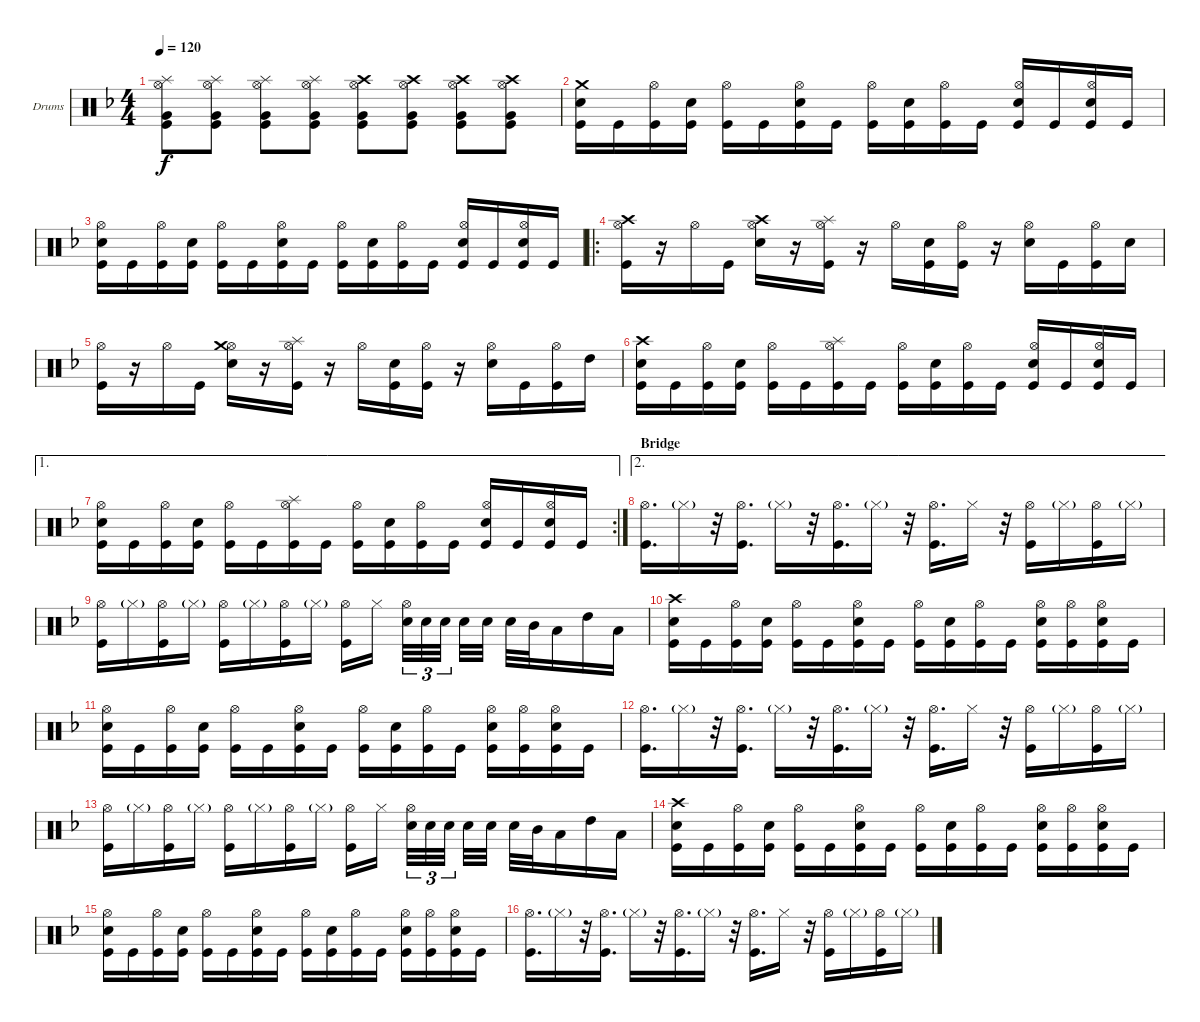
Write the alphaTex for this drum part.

\defaultSystemsLayout 4
\bracketExtendMode groupsimilarinstruments
\firstSystemTrackNameOrientation horizontal
\otherSystemsTrackNameOrientation horizontal
\track ("Drumkit" "Drums") {instrument percussion}
\staff {score}
\articulation defaults
\ts (4 4)
\tempo 120
\clef neutral
\scale
0.333333
\ks f
("Splash (hit)" "Very Low Tom (hit)" "Kick (hit)" "Hi-Hat (open)").8{dy f} ("Splash (hit)" "Very Low Tom (hit)" "Kick (hit)" "Hi-Hat (open)").8 ("Splash (hit)" "Very Low Tom (hit)" "Kick (hit)" "Hi-Hat (open)").8 ("Splash (hit)" "Very Low Tom (hit)" "Kick (hit)" "Hi-Hat (open)").8 ("Very Low Tom (hit)" "Kick (hit)" "Hi-Hat (open)" "Crash high (hit)").8 ("Very Low Tom (hit)" "Kick (hit)" "Hi-Hat (open)" "Crash high (hit)").8 ("Very Low Tom (hit)" "Kick (hit)" "Hi-Hat (open)" "Crash high (hit)").8 ("Very Low Tom (hit)" "Kick (hit)" "Hi-Hat (open)" "Crash high (hit)").8 |
\scale
0.311111 ("Crash medium (hit)" "Snare (hit) 2" "Kick (hit)").16 "Kick (hit)".16 ("Kick (hit)" "Hi-Hat (open)").16 ("Kick (hit)" "Snare (hit) 2").16 ("Kick (hit)" "Hi-Hat (open)").16 "Kick (hit)".16 ("Kick (hit)" "Snare (hit) 2" "Hi-Hat (open)").16 "Kick (hit)".16 ("Kick (hit)" "Hi-Hat (open)").16 ("Kick (hit)" "Snare (hit) 2").16 ("Kick (hit)" "Hi-Hat (open)").16 "Kick (hit)".16 ("Kick (hit)" "Snare (hit) 2" "Hi-Hat (open)").16 "Kick (hit)".16 ("Kick (hit)" "Snare (hit) 2" "Hi-Hat (open)").16 "Kick (hit)".16 |
\scale
0.311111 ("Snare (hit) 2" "Kick (hit)" "Hi-Hat (open)").16 "Kick (hit)".16 ("Kick (hit)" "Hi-Hat (open)").16 ("Kick (hit)" "Snare (hit) 2").16 ("Kick (hit)" "Hi-Hat (open)").16 "Kick (hit)".16 ("Kick (hit)" "Snare (hit) 2" "Hi-Hat (open)").16 "Kick (hit)".16 ("Kick (hit)" "Hi-Hat (open)").16 ("Kick (hit)" "Snare (hit) 2").16 ("Kick (hit)" "Hi-Hat (open)").16 "Kick (hit)".16 ("Kick (hit)" "Snare (hit) 2" "Hi-Hat (open)").16 "Kick (hit)".16 ("Kick (hit)" "Snare (hit) 2" "Hi-Hat (open)").16 "Kick (hit)".16 |
\ro
\scale
0.377778 ("Crash high (hit)" "Kick (hit)" "Hi-Hat (open)").16 r.16 "Hi-Hat (open)".16 "Kick (hit)".16 ("Snare (hit) 2" "Hi-Hat (open)" "Crash high (hit)").16 r.16 ("Splash (hit)" "Hi-Hat (open)" "Kick (hit)").16 r.16 "Hi-Hat (open)".16 ("Kick (hit)" "Snare (hit) 2").16 ("Kick (hit)" "Hi-Hat (open)").16 r.16 ("Snare (hit) 2" "Hi-Hat (open)").16 "Kick (hit)".16 ("Kick (hit)" "Hi-Hat (open)").16 "Snare (hit) 2".16 |
\scale
0.321839 ("Kick (hit)" "Hi-Hat (open)").16 r.16 "Hi-Hat (open)".16 "Kick (hit)".16 ("Hi-Hat (open)" "Crash medium (hit)" "Snare (hit) 2").16 r.16 ("Kick (hit)" "Splash (hit)" "Hi-Hat (open)").16 r.16 "Hi-Hat (open)".16 ("Kick (hit)" "Snare (hit) 2").16 ("Kick (hit)" "Hi-Hat (open)").16 r.16 ("Snare (hit) 2" "Hi-Hat (open)").16 "Kick (hit)".16 ("Kick (hit)" "Hi-Hat (open)").16 "High Tom (hit)".16 |
\scale
0.321839 ("Crash high (hit)" "Kick (hit)" "Snare (hit) 2").16 "Kick (hit)".16 ("Hi-Hat (open)" "Kick (hit)").16 ("Kick (hit)" "Snare (hit) 2").16 ("Hi-Hat (open)" "Kick (hit)").16 "Kick (hit)".16 ("Splash (hit)" "Hi-Hat (open)" "Kick (hit)").16 "Kick (hit)".16 ("Hi-Hat (open)" "Kick (hit)").16 ("Kick (hit)" "Snare (hit) 2").16 ("Kick (hit)" "Hi-Hat (open)").16 "Kick (hit)".16 ("Snare (hit) 2" "Hi-Hat (open)" "Kick (hit)").16 "Kick (hit)".16 ("Kick (hit)" "Hi-Hat (open)" "Snare (hit) 2").16 "Kick (hit)".16 |
\ae 1
\rc 2
\scale
0.356322 ("Kick (hit)" "Snare (hit) 2" "Hi-Hat (open)").16 "Kick (hit)".16 ("Hi-Hat (open)" "Kick (hit)").16 ("Kick (hit)" "Snare (hit) 2").16 ("Hi-Hat (open)" "Kick (hit)").16 "Kick (hit)".16 ("Splash (hit)" "Hi-Hat (open)" "Kick (hit)").16 "Kick (hit)".16 ("Hi-Hat (open)" "Kick (hit)").16 ("Kick (hit)" "Snare (hit) 2").16 ("Kick (hit)" "Hi-Hat (open)").16 "Kick (hit)".16 ("Snare (hit) 2" "Hi-Hat (open)" "Kick (hit)").16 "Kick (hit)".16 ("Kick (hit)" "Hi-Hat (open)" "Snare (hit) 2").16 "Kick (hit)".16 |
\ae 2
\section ("" "Bridge")
\scale
0.333333 ("Hi-Hat (open)" "Kick (hit)").16{d} "Hi-Hat (closed)"{g}.16 r.32 ("Kick (hit)" "Hi-Hat (open)").16{d} "Hi-Hat (closed)"{g}.16 r.32 ("Kick (hit)" "Hi-Hat (open)").16{d} "Hi-Hat (closed)"{g}.16 r.32 ("Kick (hit)" "Hi-Hat (open)").16{d} "Hi-Hat (closed)".16 r.32 ("Kick (hit)" "Hi-Hat (open)").16 "Hi-Hat (closed)"{g}.16 ("Kick (hit)" "Hi-Hat (open)").16 "Hi-Hat (closed)"{g}.16 |
\scale
0.333333 ("Hi-Hat (open)" "Kick (hit)").16 "Hi-Hat (closed)"{g}.16 ("Kick (hit)" "Hi-Hat (open)").16 "Hi-Hat (closed)"{g}.16 ("Kick (hit)" "Hi-Hat (open)").16 "Hi-Hat (closed)"{g}.16 ("Kick (hit)" "Hi-Hat (open)").16 "Hi-Hat (closed)"{g}.16 ("Kick (hit)" "Hi-Hat (open)").16 "Hi-Hat (closed)".16 ("Hi-Hat (open)" "Snare (hit) 2").32{tu (3 2)} "Snare (hit) 2".32{tu (3 2)} "Snare (hit) 2".32{tu (3 2)} "Snare (hit) 2".32 "Snare (hit) 2".32 "Snare (hit) 2".32 "Mid Tom (hit)".32 "Low Tom (hit)".16 "High Tom (hit)".16 "Low Tom (hit)".16 |
\scale
0.333333 ("Crash high (hit)" "Kick (hit)" "Snare (hit) 2").16 "Kick (hit)".16 ("Hi-Hat (open)" "Kick (hit)").16 ("Kick (hit)" "Snare (hit) 2").16 ("Hi-Hat (open)" "Kick (hit)").16 "Kick (hit)".16 ("Hi-Hat (open)" "Kick (hit)" "Snare (hit) 2").16 "Kick (hit)".16 ("Kick (hit)" "Hi-Hat (open)").16 ("Kick (hit)" "Snare (hit) 2").16 ("Kick (hit)" "Hi-Hat (open)").16 "Kick (hit)".16 ("Kick (hit)" "Snare (hit) 2" "Hi-Hat (open)").16 ("Hi-Hat (open)" "Kick (hit)").16 ("Kick (hit)" "Snare (hit) 2" "Hi-Hat (open)").16 "Kick (hit)".16 |
\scale
0.333333 ("Kick (hit)" "Snare (hit) 2" "Hi-Hat (open)").16 "Kick (hit)".16 ("Hi-Hat (open)" "Kick (hit)").16 ("Kick (hit)" "Snare (hit) 2").16 ("Hi-Hat (open)" "Kick (hit)").16 "Kick (hit)".16 ("Hi-Hat (open)" "Kick (hit)" "Snare (hit) 2").16 "Kick (hit)".16 ("Kick (hit)" "Hi-Hat (open)").16 ("Kick (hit)" "Snare (hit) 2").16 ("Kick (hit)" "Hi-Hat (open)").16 "Kick (hit)".16 ("Kick (hit)" "Snare (hit) 2" "Hi-Hat (open)").16 ("Hi-Hat (open)" "Kick (hit)").16 ("Kick (hit)" "Snare (hit) 2" "Hi-Hat (open)").16 "Kick (hit)".16 |
\scale
0.333333 ("Hi-Hat (open)" "Kick (hit)").16{d} "Hi-Hat (closed)"{g}.16 r.32 ("Kick (hit)" "Hi-Hat (open)").16{d} "Hi-Hat (closed)"{g}.16 r.32 ("Kick (hit)" "Hi-Hat (open)").16{d} "Hi-Hat (closed)"{g}.16 r.32 ("Kick (hit)" "Hi-Hat (open)").16{d} "Hi-Hat (closed)".16 r.32 ("Kick (hit)" "Hi-Hat (open)").16 "Hi-Hat (closed)"{g}.16 ("Kick (hit)" "Hi-Hat (open)").16 "Hi-Hat (closed)"{g}.16 |
\scale
0.333333 ("Hi-Hat (open)" "Kick (hit)").16 "Hi-Hat (closed)"{g}.16 ("Kick (hit)" "Hi-Hat (open)").16 "Hi-Hat (closed)"{g}.16 ("Kick (hit)" "Hi-Hat (open)").16 "Hi-Hat (closed)"{g}.16 ("Kick (hit)" "Hi-Hat (open)").16 "Hi-Hat (closed)"{g}.16 ("Kick (hit)" "Hi-Hat (open)").16 "Hi-Hat (closed)".16 ("Hi-Hat (open)" "Snare (hit) 2").32{tu (3 2)} "Snare (hit) 2".32{tu (3 2)} "Snare (hit) 2".32{tu (3 2)} "Snare (hit) 2".32 "Snare (hit) 2".32 "Snare (hit) 2".32 "Mid Tom (hit)".32 "Low Tom (hit)".16 "High Tom (hit)".16 "Low Tom (hit)".16 |
\scale
0.333333 ("Crash high (hit)" "Kick (hit)" "Snare (hit) 2").16 "Kick (hit)".16 ("Hi-Hat (open)" "Kick (hit)").16 ("Kick (hit)" "Snare (hit) 2").16 ("Hi-Hat (open)" "Kick (hit)").16 "Kick (hit)".16 ("Hi-Hat (open)" "Kick (hit)" "Snare (hit) 2").16 "Kick (hit)".16 ("Kick (hit)" "Hi-Hat (open)").16 ("Kick (hit)" "Snare (hit) 2").16 ("Kick (hit)" "Hi-Hat (open)").16 "Kick (hit)".16 ("Kick (hit)" "Snare (hit) 2" "Hi-Hat (open)").16 ("Hi-Hat (open)" "Kick (hit)").16 ("Kick (hit)" "Snare (hit) 2" "Hi-Hat (open)").16 "Kick (hit)".16 |
\scale
0.333333 ("Kick (hit)" "Snare (hit) 2" "Hi-Hat (open)").16 "Kick (hit)".16 ("Hi-Hat (open)" "Kick (hit)").16 ("Kick (hit)" "Snare (hit) 2").16 ("Hi-Hat (open)" "Kick (hit)").16 "Kick (hit)".16 ("Hi-Hat (open)" "Kick (hit)" "Snare (hit) 2").16 "Kick (hit)".16 ("Kick (hit)" "Hi-Hat (open)").16 ("Kick (hit)" "Snare (hit) 2").16 ("Kick (hit)" "Hi-Hat (open)").16 "Kick (hit)".16 ("Kick (hit)" "Snare (hit) 2" "Hi-Hat (open)").16 ("Hi-Hat (open)" "Kick (hit)").16 ("Kick (hit)" "Snare (hit) 2" "Hi-Hat (open)").16 "Kick (hit)".16 |
\scale
0.333333 ("Hi-Hat (open)" "Kick (hit)").16{d} "Hi-Hat (closed)"{g}.16 r.32 ("Kick (hit)" "Hi-Hat (open)").16{d} "Hi-Hat (closed)"{g}.16 r.32 ("Kick (hit)" "Hi-Hat (open)").16{d} "Hi-Hat (closed)"{g}.16 r.32 ("Kick (hit)" "Hi-Hat (open)").16{d} "Hi-Hat (closed)".16 r.32 ("Kick (hit)" "Hi-Hat (open)").16 "Hi-Hat (closed)"{g}.16 ("Kick (hit)" "Hi-Hat (open)").16 "Hi-Hat (closed)"{g}.16
